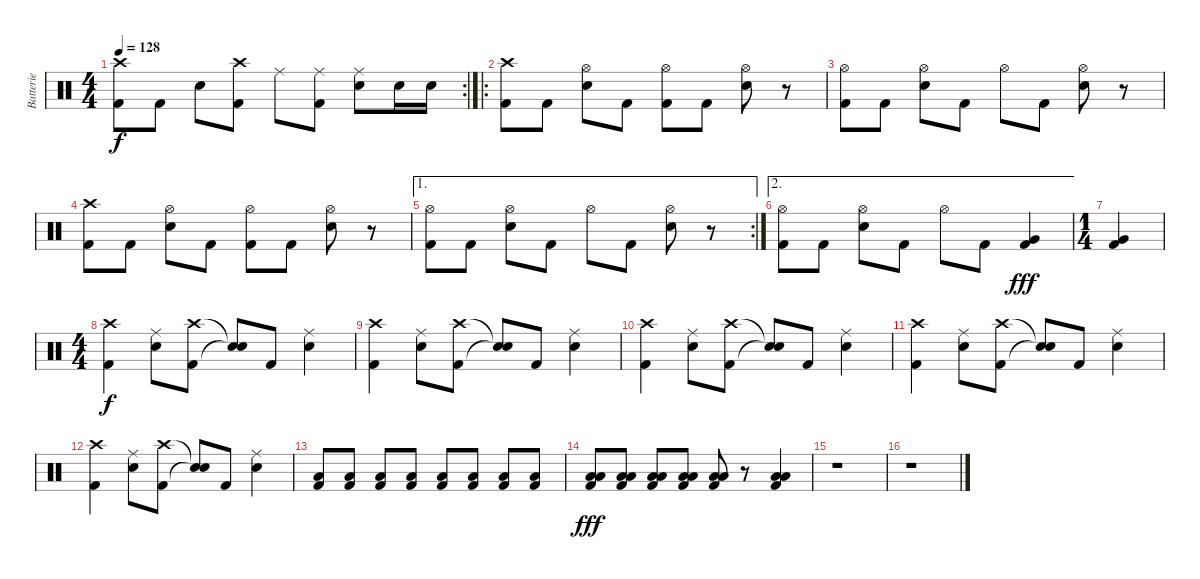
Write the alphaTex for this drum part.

\track ("Batterie" "Batterie") {instrument percussion}
\staff {score}
\articulation defaults
\rc 2
\ts (4 4)
\tempo 128
\clef neutral
\ks c
("Crash high (hit)" "Kick (hit) 2").8{dy f} "Kick (hit) 2".8 "Snare (hit) 2".8 ("Crash high (hit)" "Kick (hit) 2").8 "Ride (middle)".8 ("Ride (middle)" "Kick (hit) 2").8 ("Ride (middle)" "Snare (hit) 2").8 "Snare (hit) 2".16 "Snare (hit) 2".16 |
\ro
("Crash high (hit)" "Kick (hit) 2").8 "Kick (hit) 2".8 ("Hi-Hat (open)" "Snare (hit) 2").8 "Kick (hit) 2".8 ("Hi-Hat (open)" "Kick (hit) 2").8 "Kick (hit) 2".8 ("Hi-Hat (open)" "Snare (hit) 2").8 r.8 |
("Hi-Hat (open)" "Kick (hit) 2").8 "Kick (hit) 2".8 ("Hi-Hat (open)" "Snare (hit) 2").8 "Kick (hit) 2".8 "Hi-Hat (open)".8 "Kick (hit) 2".8 ("Hi-Hat (open)" "Snare (hit) 2").8 r.8 |
("Crash high (hit)" "Kick (hit) 2").8 "Kick (hit) 2".8 ("Hi-Hat (open)" "Snare (hit) 2").8 "Kick (hit) 2".8 ("Hi-Hat (open)" "Kick (hit) 2").8 "Kick (hit) 2".8 ("Hi-Hat (open)" "Snare (hit) 2").8 r.8 |
\ae 1
\rc 2
("Hi-Hat (open)" "Kick (hit) 2").8 "Kick (hit) 2".8 ("Hi-Hat (open)" "Snare (hit) 2").8 "Kick (hit) 2".8 "Hi-Hat (open)".8 "Kick (hit) 2".8 ("Hi-Hat (open)" "Snare (hit) 2").8 r.8 |
\ae 2
("Hi-Hat (open)" "Kick (hit) 2").8 "Kick (hit) 2".8 ("Hi-Hat (open)" "Snare (hit) 2").8 "Kick (hit) 2".8 "Hi-Hat (open)".8 "Kick (hit) 2".8 ("Very Low Tom (hit)" "Kick (hit) 2").4{dy fff} |
\ts (1 4)
("Very Low Tom (hit)" "Kick (hit) 2").4 |
\ts (4 4)
("Crash high (hit)" "Kick (hit) 2").4{dy f} ("Ride (middle)" "Snare (hit) 2").8 ("Crash high (hit)" "Kick (hit) 2").8 ("Snare (hit)"{t} "Snare (hit)"{t}).8 "Kick (hit) 2".8 ("Ride (middle)" "Snare (hit) 2").4 |
("Crash high (hit)" "Kick (hit) 2").4 ("Ride (middle)" "Snare (hit) 2").8 ("Crash high (hit)" "Kick (hit) 2").8 ("Snare (hit)"{t} "Snare (hit)"{t}).8 "Kick (hit) 2".8 ("Ride (middle)" "Snare (hit) 2").4 |
("Crash high (hit)" "Kick (hit) 2").4 ("Ride (middle)" "Snare (hit) 2").8 ("Crash high (hit)" "Kick (hit) 2").8 ("Snare (hit)"{t} "Snare (hit)"{t}).8 "Kick (hit) 2".8 ("Ride (middle)" "Snare (hit) 2").4 |
("Crash high (hit)" "Kick (hit) 2").4 ("Ride (middle)" "Snare (hit) 2").8 ("Crash high (hit)" "Kick (hit) 2").8 ("Snare (hit)"{t} "Snare (hit)"{t}).8 "Kick (hit) 2".8 ("Ride (middle)" "Snare (hit) 2").4 |
("Crash high (hit)" "Kick (hit) 2").4 ("Ride (middle)" "Snare (hit) 2").8 ("Crash high (hit)" "Kick (hit) 2").8 ("Snare (hit)"{t} "Snare (hit)"{t}).8 "Kick (hit) 2".8 ("Ride (middle)" "Snare (hit) 2").4 |
("Low Floor Tom (hit)" "Kick (hit) 2").8 ("Low Floor Tom (hit)" "Kick (hit) 2").8 ("Low Floor Tom (hit)" "Kick (hit) 2").8 ("Low Floor Tom (hit)" "Kick (hit) 2").8 ("Low Floor Tom (hit)" "Kick (hit) 2").8 ("Low Floor Tom (hit)" "Kick (hit) 2").8 ("Low Floor Tom (hit)" "Kick (hit) 2").8 ("Low Floor Tom (hit)" "Kick (hit) 2").8 |
("Low Tom (hit)" "Low Floor Tom (hit)" "Kick (hit) 2").8{dy fff} ("Low Tom (hit)" "Low Floor Tom (hit)" "Kick (hit) 2").8 ("Low Tom (hit)" "Low Floor Tom (hit)" "Kick (hit) 2").8 ("Low Tom (hit)" "Low Floor Tom (hit)" "Kick (hit) 2").8 ("Low Tom (hit)" "Low Floor Tom (hit)" "Kick (hit) 2").8 r.8 ("Low Tom (hit)" "Low Floor Tom (hit)" "Kick (hit) 2").4 |
r.1 |
r.1
